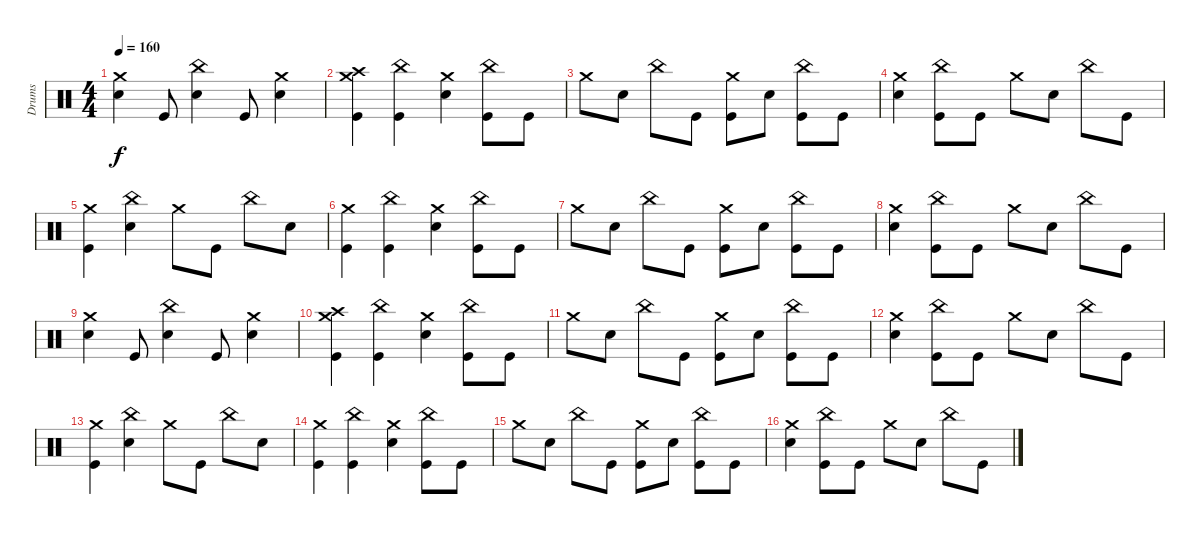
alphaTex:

\track ("Drums" "Drums") {instrument percussion}
\staff {score}
\articulation defaults
\ts (4 4)
\tempo 160
\clef neutral
\ks c
("Electric Snare (hit)" "Crash medium (hit)").4{dy f} "Kick (hit)".8 ("Electric Snare (hit)" "China (hit)").4 "Kick (hit)".8 ("Electric Snare (hit)" "Crash medium (hit)").4 |
("Kick (hit)" "Crash high (hit)" "Crash medium (hit)").4 ("Kick (hit)" "China (hit)").4 ("Electric Snare (hit)" "Crash medium (hit)").4 ("Kick (hit)" "China (hit)").8 "Kick (hit)".8 |
"Crash medium (hit)".8 "Electric Snare (hit)".8 "China (hit)".8 "Kick (hit)".8 ("Kick (hit)" "Crash medium (hit)").8 "Electric Snare (hit)".8 ("Kick (hit)" "China (hit)").8 "Kick (hit)".8 |
("Electric Snare (hit)" "Crash medium (hit)").4 ("Kick (hit)" "China (hit)").8 "Kick (hit)".8 "Crash medium (hit)".8 "Electric Snare (hit)".8 "China (hit)".8 "Kick (hit)".8 |
("Kick (hit)" "Crash medium (hit)").4 ("Electric Snare (hit)" "China (hit)").4 "Crash medium (hit)".8 "Kick (hit)".8 "China (hit)".8 "Electric Snare (hit)".8 |
("Kick (hit)" "Crash medium (hit)").4 ("Kick (hit)" "China (hit)").4 ("Electric Snare (hit)" "Crash medium (hit)").4 ("Kick (hit)" "China (hit)").8 "Kick (hit)".8 |
"Crash medium (hit)".8 "Electric Snare (hit)".8 "China (hit)".8 "Kick (hit)".8 ("Kick (hit)" "Crash medium (hit)").8 "Electric Snare (hit)".8 ("Kick (hit)" "China (hit)").8 "Kick (hit)".8 |
("Electric Snare (hit)" "Crash medium (hit)").4 ("Kick (hit)" "China (hit)").8 "Kick (hit)".8 "Crash medium (hit)".8 "Electric Snare (hit)".8 "China (hit)".8 "Kick (hit)".8 |
("Electric Snare (hit)" "Crash medium (hit)").4 "Kick (hit)".8 ("Electric Snare (hit)" "China (hit)").4 "Kick (hit)".8 ("Electric Snare (hit)" "Crash medium (hit)").4 |
("Kick (hit)" "Crash high (hit)" "Crash medium (hit)").4 ("Kick (hit)" "China (hit)").4 ("Electric Snare (hit)" "Crash medium (hit)").4 ("Kick (hit)" "China (hit)").8 "Kick (hit)".8 |
"Crash medium (hit)".8 "Electric Snare (hit)".8 "China (hit)".8 "Kick (hit)".8 ("Kick (hit)" "Crash medium (hit)").8 "Electric Snare (hit)".8 ("Kick (hit)" "China (hit)").8 "Kick (hit)".8 |
("Electric Snare (hit)" "Crash medium (hit)").4 ("Kick (hit)" "China (hit)").8 "Kick (hit)".8 "Crash medium (hit)".8 "Electric Snare (hit)".8 "China (hit)".8 "Kick (hit)".8 |
("Kick (hit)" "Crash medium (hit)").4 ("Electric Snare (hit)" "China (hit)").4 "Crash medium (hit)".8 "Kick (hit)".8 "China (hit)".8 "Electric Snare (hit)".8 |
("Kick (hit)" "Crash medium (hit)").4 ("Kick (hit)" "China (hit)").4 ("Electric Snare (hit)" "Crash medium (hit)").4 ("Kick (hit)" "China (hit)").8 "Kick (hit)".8 |
"Crash medium (hit)".8 "Electric Snare (hit)".8 "China (hit)".8 "Kick (hit)".8 ("Kick (hit)" "Crash medium (hit)").8 "Electric Snare (hit)".8 ("Kick (hit)" "China (hit)").8 "Kick (hit)".8 |
("Electric Snare (hit)" "Crash medium (hit)").4 ("Kick (hit)" "China (hit)").8 "Kick (hit)".8 "Crash medium (hit)".8 "Electric Snare (hit)".8 "China (hit)".8 "Kick (hit)".8
